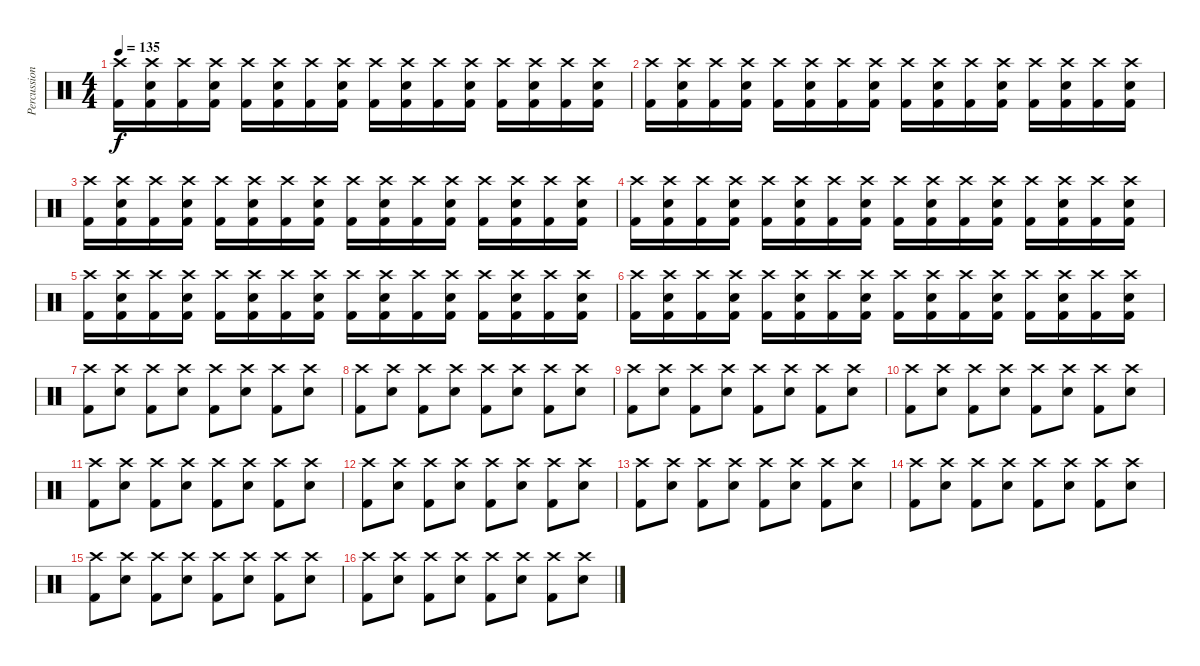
\track ("Percussion" "Percussion") {instrument percussion}
\staff {score}
\articulation defaults
\ts (4 4)
\tempo 135
\clef neutral
\ks c
("Crash high (hit)" "Kick (hit) 2").16{dy f} ("Crash high (hit)" "Electric Snare (hit)" "Kick (hit) 2").16 ("Crash high (hit)" "Kick (hit) 2").16 ("Crash high (hit)" "Electric Snare (hit)" "Kick (hit) 2").16 ("Crash high (hit)" "Kick (hit) 2").16 ("Crash high (hit)" "Electric Snare (hit)" "Kick (hit) 2").16 ("Crash high (hit)" "Kick (hit) 2").16 ("Crash high (hit)" "Electric Snare (hit)" "Kick (hit) 2").16 ("Crash high (hit)" "Kick (hit) 2").16 ("Crash high (hit)" "Electric Snare (hit)" "Kick (hit) 2").16 ("Crash high (hit)" "Kick (hit) 2").16 ("Crash high (hit)" "Electric Snare (hit)" "Kick (hit) 2").16 ("Crash high (hit)" "Kick (hit) 2").16 ("Crash high (hit)" "Electric Snare (hit)" "Kick (hit) 2").16 ("Crash high (hit)" "Kick (hit) 2").16 ("Crash high (hit)" "Electric Snare (hit)" "Kick (hit) 2").16 |
("Crash high (hit)" "Kick (hit) 2").16 ("Crash high (hit)" "Electric Snare (hit)" "Kick (hit) 2").16 ("Crash high (hit)" "Kick (hit) 2").16 ("Crash high (hit)" "Electric Snare (hit)" "Kick (hit) 2").16 ("Crash high (hit)" "Kick (hit) 2").16 ("Crash high (hit)" "Electric Snare (hit)" "Kick (hit) 2").16 ("Crash high (hit)" "Kick (hit) 2").16 ("Crash high (hit)" "Electric Snare (hit)" "Kick (hit) 2").16 ("Crash high (hit)" "Kick (hit) 2").16 ("Crash high (hit)" "Electric Snare (hit)" "Kick (hit) 2").16 ("Crash high (hit)" "Kick (hit) 2").16 ("Crash high (hit)" "Electric Snare (hit)" "Kick (hit) 2").16 ("Crash high (hit)" "Kick (hit) 2").16 ("Crash high (hit)" "Electric Snare (hit)" "Kick (hit) 2").16 ("Crash high (hit)" "Kick (hit) 2").16 ("Crash high (hit)" "Electric Snare (hit)" "Kick (hit) 2").16 |
("Crash high (hit)" "Kick (hit) 2").16 ("Crash high (hit)" "Electric Snare (hit)" "Kick (hit) 2").16 ("Crash high (hit)" "Kick (hit) 2").16 ("Crash high (hit)" "Electric Snare (hit)" "Kick (hit) 2").16 ("Crash high (hit)" "Kick (hit) 2").16 ("Crash high (hit)" "Electric Snare (hit)" "Kick (hit) 2").16 ("Crash high (hit)" "Kick (hit) 2").16 ("Crash high (hit)" "Electric Snare (hit)" "Kick (hit) 2").16 ("Crash high (hit)" "Kick (hit) 2").16 ("Crash high (hit)" "Electric Snare (hit)" "Kick (hit) 2").16 ("Crash high (hit)" "Kick (hit) 2").16 ("Crash high (hit)" "Electric Snare (hit)" "Kick (hit) 2").16 ("Crash high (hit)" "Kick (hit) 2").16 ("Crash high (hit)" "Electric Snare (hit)" "Kick (hit) 2").16 ("Crash high (hit)" "Kick (hit) 2").16 ("Crash high (hit)" "Electric Snare (hit)" "Kick (hit) 2").16 |
("Crash high (hit)" "Kick (hit) 2").16 ("Crash high (hit)" "Electric Snare (hit)" "Kick (hit) 2").16 ("Crash high (hit)" "Kick (hit) 2").16 ("Crash high (hit)" "Electric Snare (hit)" "Kick (hit) 2").16 ("Crash high (hit)" "Kick (hit) 2").16 ("Crash high (hit)" "Electric Snare (hit)" "Kick (hit) 2").16 ("Crash high (hit)" "Kick (hit) 2").16 ("Crash high (hit)" "Electric Snare (hit)" "Kick (hit) 2").16 ("Crash high (hit)" "Kick (hit) 2").16 ("Crash high (hit)" "Electric Snare (hit)" "Kick (hit) 2").16 ("Crash high (hit)" "Kick (hit) 2").16 ("Crash high (hit)" "Electric Snare (hit)" "Kick (hit) 2").16 ("Crash high (hit)" "Kick (hit) 2").16 ("Crash high (hit)" "Electric Snare (hit)" "Kick (hit) 2").16 ("Crash high (hit)" "Kick (hit) 2").16 ("Crash high (hit)" "Electric Snare (hit)" "Kick (hit) 2").16 |
("Crash high (hit)" "Kick (hit) 2").16 ("Crash high (hit)" "Electric Snare (hit)" "Kick (hit) 2").16 ("Crash high (hit)" "Kick (hit) 2").16 ("Crash high (hit)" "Electric Snare (hit)" "Kick (hit) 2").16 ("Crash high (hit)" "Kick (hit) 2").16 ("Crash high (hit)" "Electric Snare (hit)" "Kick (hit) 2").16 ("Crash high (hit)" "Kick (hit) 2").16 ("Crash high (hit)" "Electric Snare (hit)" "Kick (hit) 2").16 ("Crash high (hit)" "Kick (hit) 2").16 ("Crash high (hit)" "Electric Snare (hit)" "Kick (hit) 2").16 ("Crash high (hit)" "Kick (hit) 2").16 ("Crash high (hit)" "Electric Snare (hit)" "Kick (hit) 2").16 ("Crash high (hit)" "Kick (hit) 2").16 ("Crash high (hit)" "Electric Snare (hit)" "Kick (hit) 2").16 ("Crash high (hit)" "Kick (hit) 2").16 ("Crash high (hit)" "Electric Snare (hit)" "Kick (hit) 2").16 |
("Crash high (hit)" "Kick (hit) 2").16 ("Crash high (hit)" "Electric Snare (hit)" "Kick (hit) 2").16 ("Crash high (hit)" "Kick (hit) 2").16 ("Crash high (hit)" "Electric Snare (hit)" "Kick (hit) 2").16 ("Crash high (hit)" "Kick (hit) 2").16 ("Crash high (hit)" "Electric Snare (hit)" "Kick (hit) 2").16 ("Crash high (hit)" "Kick (hit) 2").16 ("Crash high (hit)" "Electric Snare (hit)" "Kick (hit) 2").16 ("Crash high (hit)" "Kick (hit) 2").16 ("Crash high (hit)" "Electric Snare (hit)" "Kick (hit) 2").16 ("Crash high (hit)" "Kick (hit) 2").16 ("Crash high (hit)" "Electric Snare (hit)" "Kick (hit) 2").16 ("Crash high (hit)" "Kick (hit) 2").16 ("Crash high (hit)" "Electric Snare (hit)" "Kick (hit) 2").16 ("Crash high (hit)" "Kick (hit) 2").16 ("Crash high (hit)" "Electric Snare (hit)" "Kick (hit) 2").16 |
("Crash high (hit)" "Kick (hit) 2").8 ("Crash high (hit)" "Electric Snare (hit)").8 ("Crash high (hit)" "Kick (hit) 2").8 ("Crash high (hit)" "Electric Snare (hit)").8 ("Crash high (hit)" "Kick (hit) 2").8 ("Crash high (hit)" "Electric Snare (hit)").8 ("Crash high (hit)" "Kick (hit) 2").8 ("Crash high (hit)" "Electric Snare (hit)").8 |
("Crash high (hit)" "Kick (hit) 2").8 ("Crash high (hit)" "Electric Snare (hit)").8 ("Crash high (hit)" "Kick (hit) 2").8 ("Crash high (hit)" "Electric Snare (hit)").8 ("Crash high (hit)" "Kick (hit) 2").8 ("Crash high (hit)" "Electric Snare (hit)").8 ("Crash high (hit)" "Kick (hit) 2").8 ("Crash high (hit)" "Electric Snare (hit)").8 |
("Crash high (hit)" "Kick (hit) 2").8 ("Crash high (hit)" "Electric Snare (hit)").8 ("Crash high (hit)" "Kick (hit) 2").8 ("Crash high (hit)" "Electric Snare (hit)").8 ("Crash high (hit)" "Kick (hit) 2").8 ("Crash high (hit)" "Electric Snare (hit)").8 ("Crash high (hit)" "Kick (hit) 2").8 ("Crash high (hit)" "Electric Snare (hit)").8 |
("Crash high (hit)" "Kick (hit) 2").8 ("Crash high (hit)" "Electric Snare (hit)").8 ("Crash high (hit)" "Kick (hit) 2").8 ("Crash high (hit)" "Electric Snare (hit)").8 ("Crash high (hit)" "Kick (hit) 2").8 ("Crash high (hit)" "Electric Snare (hit)").8 ("Crash high (hit)" "Kick (hit) 2").8 ("Crash high (hit)" "Electric Snare (hit)").8 |
("Crash high (hit)" "Kick (hit) 2").8 ("Crash high (hit)" "Electric Snare (hit)").8 ("Crash high (hit)" "Kick (hit) 2").8 ("Crash high (hit)" "Electric Snare (hit)").8 ("Crash high (hit)" "Kick (hit) 2").8 ("Crash high (hit)" "Electric Snare (hit)").8 ("Crash high (hit)" "Kick (hit) 2").8 ("Crash high (hit)" "Electric Snare (hit)").8 |
("Crash high (hit)" "Kick (hit) 2").8 ("Crash high (hit)" "Electric Snare (hit)").8 ("Crash high (hit)" "Kick (hit) 2").8 ("Crash high (hit)" "Electric Snare (hit)").8 ("Crash high (hit)" "Kick (hit) 2").8 ("Crash high (hit)" "Electric Snare (hit)").8 ("Crash high (hit)" "Kick (hit) 2").8 ("Crash high (hit)" "Electric Snare (hit)").8 |
("Crash high (hit)" "Kick (hit) 2").8 ("Crash high (hit)" "Electric Snare (hit)").8 ("Crash high (hit)" "Kick (hit) 2").8 ("Crash high (hit)" "Electric Snare (hit)").8 ("Crash high (hit)" "Kick (hit) 2").8 ("Crash high (hit)" "Electric Snare (hit)").8 ("Crash high (hit)" "Kick (hit) 2").8 ("Crash high (hit)" "Electric Snare (hit)").8 |
("Crash high (hit)" "Kick (hit) 2").8 ("Crash high (hit)" "Electric Snare (hit)").8 ("Crash high (hit)" "Kick (hit) 2").8 ("Crash high (hit)" "Electric Snare (hit)").8 ("Crash high (hit)" "Kick (hit) 2").8 ("Crash high (hit)" "Electric Snare (hit)").8 ("Crash high (hit)" "Kick (hit) 2").8 ("Crash high (hit)" "Electric Snare (hit)").8 |
("Crash high (hit)" "Kick (hit) 2").8 ("Crash high (hit)" "Electric Snare (hit)").8 ("Crash high (hit)" "Kick (hit) 2").8 ("Crash high (hit)" "Electric Snare (hit)").8 ("Crash high (hit)" "Kick (hit) 2").8 ("Crash high (hit)" "Electric Snare (hit)").8 ("Crash high (hit)" "Kick (hit) 2").8 ("Crash high (hit)" "Electric Snare (hit)").8 |
("Crash high (hit)" "Kick (hit) 2").8 ("Crash high (hit)" "Electric Snare (hit)").8 ("Crash high (hit)" "Kick (hit) 2").8 ("Crash high (hit)" "Electric Snare (hit)").8 ("Crash high (hit)" "Kick (hit) 2").8 ("Crash high (hit)" "Electric Snare (hit)").8 ("Crash high (hit)" "Kick (hit) 2").8 ("Crash high (hit)" "Electric Snare (hit)").8
